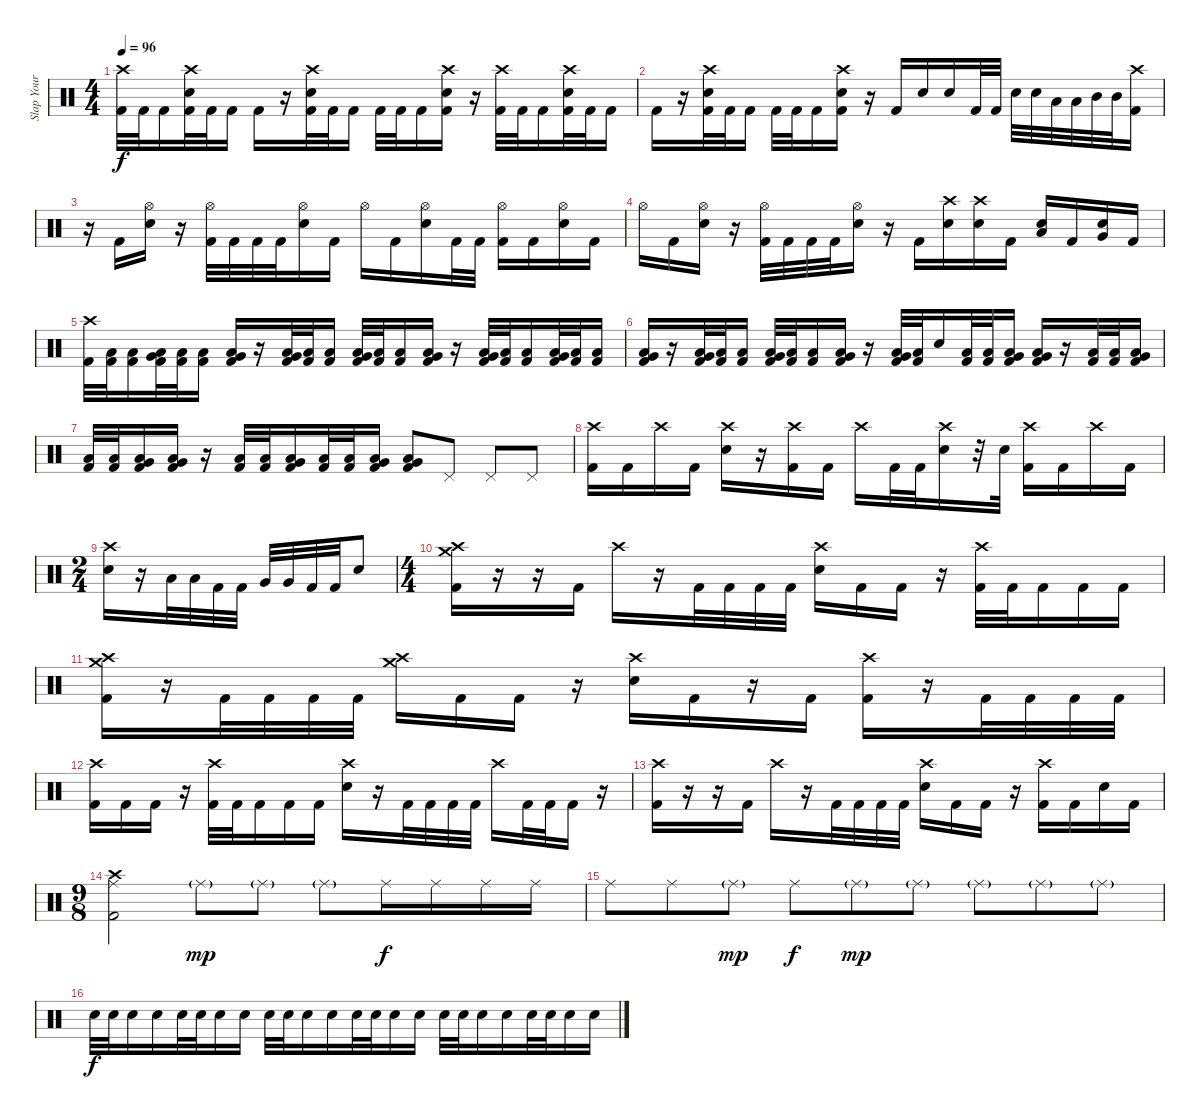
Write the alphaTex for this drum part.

\track ("Slap Your Sticks" "Slap Your ") {instrument percussion}
\staff {score}
\articulation defaults
\ts (4 4)
\tempo 96
\clef neutral
\ks c
("Crash high (hit)" "Kick (hit) 2").32{dy f} "Kick (hit) 2".32 "Kick (hit) 2".16 ("Crash high (hit)" "Snare (hit) 2" "Kick (hit) 2").32 "Kick (hit) 2".32 "Kick (hit) 2".16 "Kick (hit) 2".16 r.16 ("Crash high (hit)" "Snare (hit) 2" "Kick (hit) 2").32 "Kick (hit) 2".32 "Kick (hit) 2".16 "Kick (hit) 2".32 "Kick (hit) 2".32 "Kick (hit) 2".16 ("Crash high (hit)" "Snare (hit) 2" "Kick (hit) 2").16 r.16 ("Crash high (hit)" "Kick (hit) 2").32 "Kick (hit) 2".32 "Kick (hit) 2".16 ("Crash high (hit)" "Snare (hit) 2" "Kick (hit) 2").32 "Kick (hit) 2".32 "Kick (hit) 2".16 |
"Kick (hit) 2".16 r.16 ("Crash high (hit)" "Snare (hit) 2" "Kick (hit) 2").32 "Kick (hit) 2".32 "Kick (hit) 2".16 "Kick (hit) 2".32 "Kick (hit) 2".32 "Kick (hit) 2".16 ("Crash high (hit)" "Snare (hit) 2" "Kick (hit) 2").16 r.16 "Kick (hit) 2".16 "Snare (hit) 2".16 "Snare (hit) 2".16 "Kick (hit) 2".32 "Kick (hit) 2".32 "Snare (hit) 2".32 "Snare (hit) 2".32 "Low Tom (hit)".32 "Low Tom (hit)".32 "Mid Tom (hit)".32 "Mid Tom (hit)".32 ("Crash high (hit)" "Kick (hit) 2").16 |
r.16 "Kick (hit) 2".16 ("Hi-Hat (open)" "Snare (hit) 2").16 r.16 ("Hi-Hat (open)" "Kick (hit) 2").32 "Kick (hit) 2".32 "Kick (hit) 2".32 "Kick (hit) 2".32 ("Hi-Hat (open)" "Snare (hit) 2").16 "Kick (hit) 2".16 "Hi-Hat (open)".16 "Kick (hit) 2".16 ("Hi-Hat (open)" "Snare (hit) 2").16 "Kick (hit) 2".32 "Kick (hit) 2".32 ("Hi-Hat (open)" "Kick (hit) 2").16 "Kick (hit) 2".16 ("Hi-Hat (open)" "Snare (hit) 2").16 "Kick (hit) 2".16 |
"Hi-Hat (open)".16 "Kick (hit) 2".16 ("Hi-Hat (open)" "Snare (hit) 2").16 r.16 ("Hi-Hat (open)" "Kick (hit) 2").32 "Kick (hit) 2".32 "Kick (hit) 2".32 "Kick (hit) 2".32 ("Hi-Hat (open)" "Snare (hit) 2").16 r.16 "Kick (hit) 2".16 ("Crash high (hit)" "Snare (hit) 2").16 ("Crash high (hit)" "Snare (hit) 2").16 "Kick (hit) 2".16 ("Low Tom (hit)" "Snare (hit) 2").16 "Kick (hit) 2".16 ("Very Low Tom (hit)" "Snare (hit) 2").16 "Kick (hit) 2".16 |
("Crash high (hit)" "Kick (hit) 2").32 ("Low Floor Tom (hit)" "Kick (hit) 2").32 ("Low Floor Tom (hit)" "Kick (hit) 2").16 ("Very Low Tom (hit)" "Low Floor Tom (hit)" "Kick (hit) 2").32 ("Low Floor Tom (hit)" "Kick (hit) 2").32 ("Low Floor Tom (hit)" "Kick (hit) 2").16 ("Very Low Tom (hit)" "Low Floor Tom (hit)" "Kick (hit) 2").16 r.16 ("Very Low Tom (hit)" "Low Floor Tom (hit)" "Kick (hit) 2").32 ("Low Floor Tom (hit)" "Kick (hit) 2").32 ("Low Floor Tom (hit)" "Kick (hit) 2").16 ("Very Low Tom (hit)" "Low Floor Tom (hit)" "Kick (hit) 2").32 ("Low Floor Tom (hit)" "Kick (hit) 2").32 ("Low Floor Tom (hit)" "Kick (hit) 2").16 ("Very Low Tom (hit)" "Low Floor Tom (hit)" "Kick (hit) 2").16 r.16 ("Very Low Tom (hit)" "Low Floor Tom (hit)" "Kick (hit) 2").32 ("Low Floor Tom (hit)" "Kick (hit) 2").32 ("Low Floor Tom (hit)" "Kick (hit) 2").16 ("Very Low Tom (hit)" "Low Floor Tom (hit)" "Kick (hit) 2").32 ("Low Floor Tom (hit)" "Kick (hit) 2").32 ("Low Floor Tom (hit)" "Kick (hit) 2").16 |
("Very Low Tom (hit)" "Low Floor Tom (hit)" "Kick (hit) 2").16 r.16 ("Very Low Tom (hit)" "Low Floor Tom (hit)" "Kick (hit) 2").32 ("Low Floor Tom (hit)" "Kick (hit) 2").32 ("Low Floor Tom (hit)" "Kick (hit) 2").16 ("Very Low Tom (hit)" "Low Floor Tom (hit)" "Kick (hit) 2").32 ("Low Floor Tom (hit)" "Kick (hit) 2").32 ("Low Floor Tom (hit)" "Kick (hit) 2").16 ("Very Low Tom (hit)" "Low Floor Tom (hit)" "Kick (hit) 2").16 r.16 ("Very Low Tom (hit)" "Low Floor Tom (hit)" "Kick (hit) 2").32 ("Low Floor Tom (hit)" "Kick (hit) 2").32 "Snare (hit) 2".16 ("Low Floor Tom (hit)" "Kick (hit) 2").32 ("Low Floor Tom (hit)" "Kick (hit) 2").32 ("Very Low Tom (hit)" "Low Floor Tom (hit)" "Kick (hit) 2").16 ("Very Low Tom (hit)" "Low Floor Tom (hit)" "Kick (hit) 2").16 r.16 ("Low Floor Tom (hit)" "Kick (hit) 2").32 ("Low Floor Tom (hit)" "Kick (hit) 2").32 ("Very Low Tom (hit)" "Low Floor Tom (hit)" "Kick (hit) 2").16 |
("Low Floor Tom (hit)" "Kick (hit) 2").32 ("Low Floor Tom (hit)" "Kick (hit) 2").32 ("Very Low Tom (hit)" "Low Floor Tom (hit)" "Kick (hit) 2").16 ("Very Low Tom (hit)" "Low Floor Tom (hit)" "Kick (hit) 2").16 r.16 ("Low Floor Tom (hit)" "Kick (hit) 2").32 ("Low Floor Tom (hit)" "Kick (hit) 2").32 ("Very Low Tom (hit)" "Low Floor Tom (hit)" "Kick (hit) 2").16 ("Low Floor Tom (hit)" "Kick (hit) 2").32 ("Low Floor Tom (hit)" "Kick (hit) 2").32 ("Very Low Tom (hit)" "Low Floor Tom (hit)" "Kick (hit) 2").16 ("Very Low Tom (hit)" "Low Floor Tom (hit)" "Kick (hit) 2").8 "Pedal Hi-Hat (hit)".8 "Pedal Hi-Hat (hit)".8 "Pedal Hi-Hat (hit)".8 |
("Crash high (hit)" "Kick (hit) 2").16 "Kick (hit) 2".16 "Crash high (hit)".16 "Kick (hit) 2".16 ("Crash high (hit)" "Snare (hit) 2").16 r.16 ("Crash high (hit)" "Kick (hit) 2").16 "Kick (hit) 2".16 "Crash high (hit)".16 "Kick (hit) 2".32 "Kick (hit) 2".32 ("Crash high (hit)" "Snare (hit) 2").16 r.32 "Snare (hit) 2".32 ("Crash high (hit)" "Kick (hit) 2").16 "Kick (hit) 2".16 "Crash high (hit)".16 "Kick (hit) 2".16 |
\ts (2 4)
("Crash high (hit)" "Snare (hit) 2").16 r.16 "Low Tom (hit)".32 "Low Tom (hit)".32 "Kick (hit) 2".32 "Kick (hit) 2".32 "Very Low Tom (hit)".32 "Very Low Tom (hit)".32 "Kick (hit) 2".32 "Kick (hit) 2".32 "Snare (hit) 2".8 |
\ts (4 4)
("Crash high (hit)" "Crash medium (hit)" "Kick (hit) 2").16 r.16 r.16 "Kick (hit) 2".16 "Crash high (hit)".16 r.16 "Kick (hit) 2".32 "Kick (hit) 2".32 "Kick (hit) 2".32 "Kick (hit) 2".32 ("Crash high (hit)" "Snare (hit) 2").16 "Kick (hit) 2".16 "Kick (hit) 2".16 r.16 ("Crash high (hit)" "Kick (hit) 2").32 "Kick (hit) 2".32 "Kick (hit) 2".16 "Kick (hit) 2".16 "Kick (hit) 2".16 |
("Crash high (hit)" "Crash medium (hit)" "Kick (hit) 2").16 r.16 "Kick (hit) 2".32 "Kick (hit) 2".32 "Kick (hit) 2".32 "Kick (hit) 2".32 ("Crash high (hit)" "Crash medium (hit)").16 "Kick (hit) 2".16 "Kick (hit) 2".16 r.16 ("Crash high (hit)" "Snare (hit) 2").16 "Kick (hit) 2".16 r.16 "Kick (hit) 2".16 ("Crash high (hit)" "Kick (hit) 2").16 r.16 "Kick (hit) 2".32 "Kick (hit) 2".32 "Kick (hit) 2".32 "Kick (hit) 2".32 |
("Crash high (hit)" "Kick (hit) 2").16 "Kick (hit) 2".16 "Kick (hit) 2".16 r.16 ("Crash high (hit)" "Kick (hit) 2").32 "Kick (hit) 2".32 "Kick (hit) 2".16 "Kick (hit) 2".16 "Kick (hit) 2".16 ("Crash high (hit)" "Snare (hit) 2").16 r.16 "Kick (hit) 2".32 "Kick (hit) 2".32 "Kick (hit) 2".32 "Kick (hit) 2".32 "Crash high (hit)".16 "Kick (hit) 2".32 "Kick (hit) 2".32 "Kick (hit) 2".16 r.16 |
("Crash high (hit)" "Kick (hit) 2").16 r.16 r.16 "Kick (hit) 2".16 "Crash high (hit)".16 r.16 "Kick (hit) 2".32 "Kick (hit) 2".32 "Kick (hit) 2".32 "Kick (hit) 2".32 ("Crash high (hit)" "Snare (hit) 2").16 "Kick (hit) 2".16 "Kick (hit) 2".16 r.16 ("Crash high (hit)" "Kick (hit) 2").16 "Kick (hit) 2".16 "Snare (hit) 2".16 "Kick (hit) 2".16 |
\ts (9 8)
("Crash high (hit)" "Ride (middle)" "Kick (hit) 2").2{volume 9} "Ride (middle)"{g}.8{dy mp} "Ride (middle)"{g}.8 "Ride (middle)"{g}.8 "Ride (middle)".16{dy f} "Ride (middle)".16 "Ride (middle)".16 "Ride (middle)".16 |
"Ride (middle)".8 "Ride (middle)".8 "Ride (middle)"{g}.8{dy mp} "Ride (middle)".8{dy f} "Ride (middle)"{g}.8{dy mp} "Ride (middle)"{g}.8 "Ride (middle)"{g}.8 "Ride (middle)"{g}.8 "Ride (middle)"{g}.8 |
"Snare (hit) 2".32{dy f} "Snare (hit) 2".32 "Snare (hit) 2".16 "Snare (hit) 2".16 "Snare (hit) 2".32 "Snare (hit) 2".32 "Snare (hit) 2".16 "Snare (hit) 2".16 "Snare (hit) 2".32 "Snare (hit) 2".32 "Snare (hit) 2".16 "Snare (hit) 2".16 "Snare (hit) 2".32 "Snare (hit) 2".32 "Snare (hit) 2".16 "Snare (hit) 2".16 "Snare (hit) 2".32 "Snare (hit) 2".32 "Snare (hit) 2".16 "Snare (hit) 2".16 "Snare (hit) 2".32 "Snare (hit) 2".32 "Snare (hit) 2".16 "Snare (hit) 2".16
